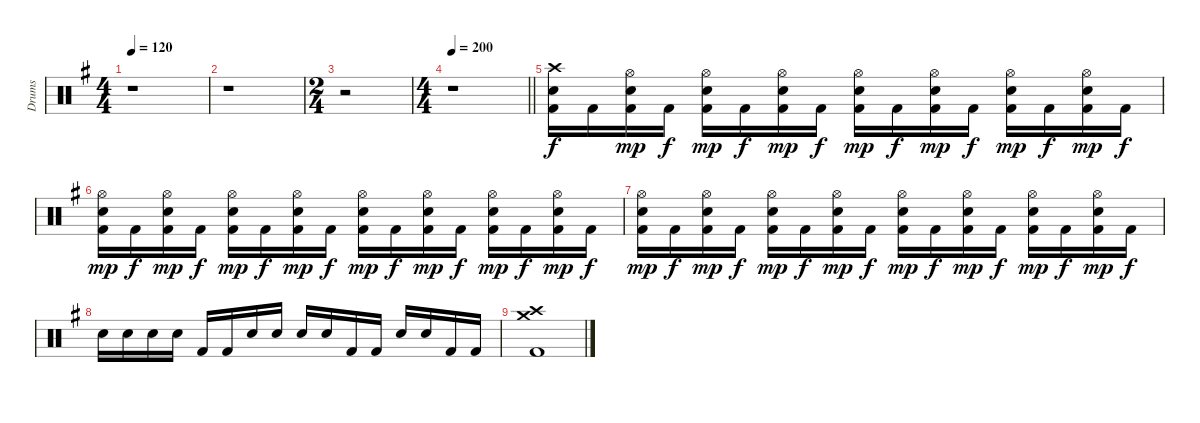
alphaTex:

\track ("Drums" "Drums") {instrument percussion}
\staff {score}
\articulation defaults
\ts (4 4)
\tempo 120
\clef neutral
\ks g
r.1{dy f} |
r.1 |
\ts (2 4)
r.2 |
\ts (4 4)
\tempo 200
\barLineRight lightlight
r.1 |
\section ("" "")
("Crash high (hit)" "Snare (hit) 2" "Kick (hit) 2").16 "Kick (hit) 2".16 ("Hi-Hat (open)" "Snare (hit) 2" "Kick (hit) 2").16{dy mp} "Kick (hit) 2".16{dy f} ("Hi-Hat (open)" "Snare (hit) 2" "Kick (hit) 2").16{dy mp} "Kick (hit) 2".16{dy f} ("Hi-Hat (open)" "Snare (hit) 2" "Kick (hit) 2").16{dy mp} "Kick (hit) 2".16{dy f} ("Hi-Hat (open)" "Snare (hit) 2" "Kick (hit) 2").16{dy mp} "Kick (hit) 2".16{dy f} ("Hi-Hat (open)" "Snare (hit) 2" "Kick (hit) 2").16{dy mp} "Kick (hit) 2".16{dy f} ("Hi-Hat (open)" "Snare (hit) 2" "Kick (hit) 2").16{dy mp} "Kick (hit) 2".16{dy f} ("Hi-Hat (open)" "Snare (hit) 2" "Kick (hit) 2").16{dy mp} "Kick (hit) 2".16{dy f} |
("Hi-Hat (open)" "Snare (hit) 2" "Kick (hit) 2").16{dy mp} "Kick (hit) 2".16{dy f} ("Hi-Hat (open)" "Snare (hit) 2" "Kick (hit) 2").16{dy mp} "Kick (hit) 2".16{dy f} ("Hi-Hat (open)" "Snare (hit) 2" "Kick (hit) 2").16{dy mp} "Kick (hit) 2".16{dy f} ("Hi-Hat (open)" "Snare (hit) 2" "Kick (hit) 2").16{dy mp} "Kick (hit) 2".16{dy f} ("Hi-Hat (open)" "Snare (hit) 2" "Kick (hit) 2").16{dy mp} "Kick (hit) 2".16{dy f} ("Hi-Hat (open)" "Snare (hit) 2" "Kick (hit) 2").16{dy mp} "Kick (hit) 2".16{dy f} ("Hi-Hat (open)" "Snare (hit) 2" "Kick (hit) 2").16{dy mp} "Kick (hit) 2".16{dy f} ("Hi-Hat (open)" "Snare (hit) 2" "Kick (hit) 2").16{dy mp} "Kick (hit) 2".16{dy f} |
("Hi-Hat (open)" "Snare (hit) 2" "Kick (hit) 2").16{dy mp} "Kick (hit) 2".16{dy f} ("Hi-Hat (open)" "Snare (hit) 2" "Kick (hit) 2").16{dy mp} "Kick (hit) 2".16{dy f} ("Hi-Hat (open)" "Snare (hit) 2" "Kick (hit) 2").16{dy mp} "Kick (hit) 2".16{dy f} ("Hi-Hat (open)" "Snare (hit) 2" "Kick (hit) 2").16{dy mp} "Kick (hit) 2".16{dy f} ("Hi-Hat (open)" "Snare (hit) 2" "Kick (hit) 2").16{dy mp} "Kick (hit) 2".16{dy f} ("Hi-Hat (open)" "Snare (hit) 2" "Kick (hit) 2").16{dy mp} "Kick (hit) 2".16{dy f} ("Hi-Hat (open)" "Snare (hit) 2" "Kick (hit) 2").16{dy mp} "Kick (hit) 2".16{dy f} ("Hi-Hat (open)" "Snare (hit) 2" "Kick (hit) 2").16{dy mp} "Kick (hit) 2".16{dy f} |
"Snare (hit) 2".16 "Snare (hit) 2".16 "Snare (hit) 2".16 "Snare (hit) 2".16 "Kick (hit) 2".16 "Kick (hit) 2".16 "Snare (hit) 2".16 "Snare (hit) 2".16 "Snare (hit) 2".16 "Snare (hit) 2".16 "Kick (hit) 2".16 "Kick (hit) 2".16 "Snare (hit) 2".16 "Snare (hit) 2".16 "Kick (hit) 2".16 "Kick (hit) 2".16 |
("Crash medium (hit)" "Crash high (hit)" "Kick (hit) 2").1
